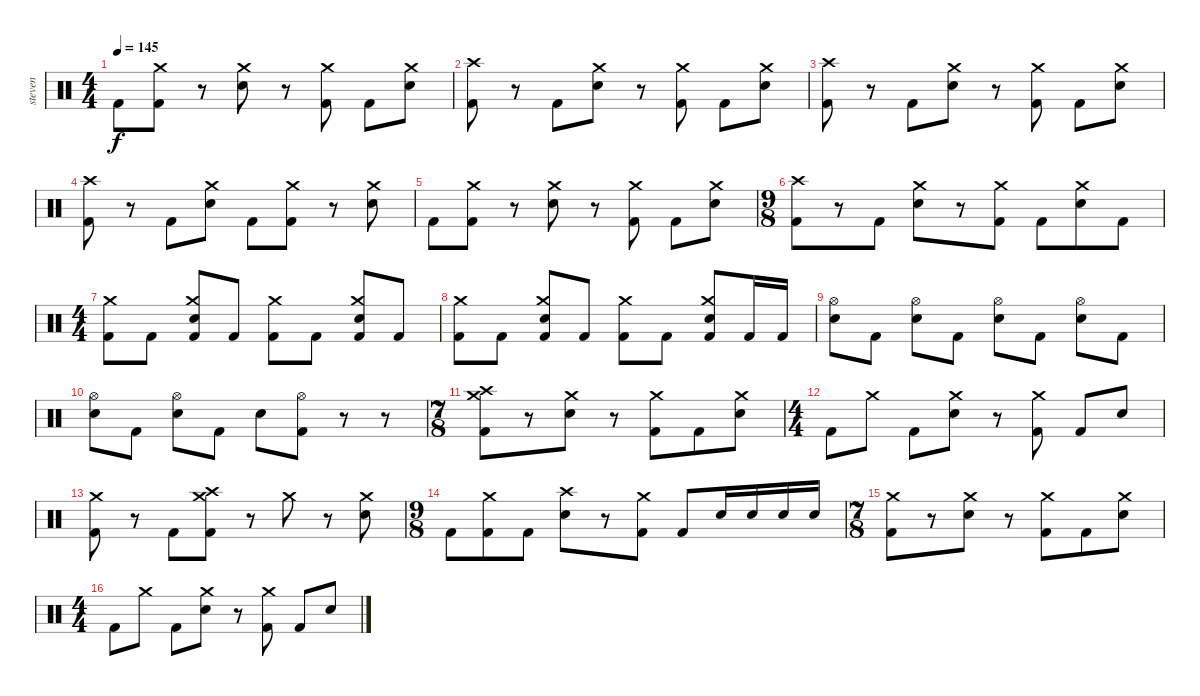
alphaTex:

\track ("steven" "steven") {instrument percussion}
\staff {score}
\articulation defaults
\ts (4 4)
\tempo 145
\clef neutral
\ks c "Kick (hit) 2".8{dy f}
("Crash medium (hit)" "Kick (hit) 2").8 r.8 ("Crash medium (hit)" "Electric Snare (hit)").8 r.8 ("Crash medium (hit)" "Kick (hit) 2").8 "Kick (hit) 2".8 ("Crash medium (hit)" "Electric Snare (hit)").8 |
("Crash high (hit)" "Kick (hit) 2").8 r.8 "Kick (hit) 2".8 ("Crash medium (hit)" "Electric Snare (hit)").8 r.8 ("Crash medium (hit)" "Kick (hit) 2").8 "Kick (hit) 2".8 ("Crash medium (hit)" "Electric Snare (hit)").8 |
("Crash high (hit)" "Kick (hit) 2").8 r.8 "Kick (hit) 2".8 ("Crash medium (hit)" "Electric Snare (hit)").8 r.8 ("Crash medium (hit)" "Kick (hit) 2").8 "Kick (hit) 2".8 ("Crash medium (hit)" "Electric Snare (hit)").8 |
("Crash high (hit)" "Kick (hit) 2").8 r.8 "Kick (hit) 2".8 ("Crash medium (hit)" "Electric Snare (hit)").8 "Kick (hit) 2".8 ("Crash medium (hit)" "Kick (hit) 2").8 r.8 ("Crash medium (hit)" "Electric Snare (hit)").8 |
"Kick (hit) 2".8 ("Crash medium (hit)" "Kick (hit) 2").8 r.8 ("Crash medium (hit)" "Electric Snare (hit)").8 r.8 ("Crash medium (hit)" "Kick (hit) 2").8 "Kick (hit) 2".8 ("Crash medium (hit)" "Electric Snare (hit)").8 |
\ts (9 8)
("Crash high (hit)" "Kick (hit) 2").8 r.8 "Kick (hit) 2".8 ("Crash medium (hit)" "Electric Snare (hit)").8 r.8 ("Crash medium (hit)" "Kick (hit) 2").8 "Kick (hit) 2".8 ("Crash medium (hit)" "Electric Snare (hit)").8 "Kick (hit) 2".8 |
\ts (4 4)
("Crash medium (hit)" "Kick (hit) 2").8 "Kick (hit) 2".8 ("Crash medium (hit)" "Electric Snare (hit)" "Kick (hit) 2").8 "Kick (hit) 2".8 ("Crash medium (hit)" "Kick (hit) 2").8 "Kick (hit) 2".8 ("Crash medium (hit)" "Electric Snare (hit)" "Kick (hit) 2").8 "Kick (hit) 2".8 |
("Crash medium (hit)" "Kick (hit) 2").8 "Kick (hit) 2".8 ("Crash medium (hit)" "Electric Snare (hit)" "Kick (hit) 2").8 "Kick (hit) 2".8 ("Crash medium (hit)" "Kick (hit) 2").8 "Kick (hit) 2".8 ("Crash medium (hit)" "Electric Snare (hit)" "Kick (hit) 2").8 "Kick (hit) 2".16 "Kick (hit) 2".16 |
("Hi-Hat (open)" "Electric Snare (hit)").8 "Kick (hit) 2".8 ("Hi-Hat (open)" "Electric Snare (hit)").8 "Kick (hit) 2".8 ("Hi-Hat (open)" "Electric Snare (hit)").8 "Kick (hit) 2".8 ("Hi-Hat (open)" "Electric Snare (hit)").8 "Kick (hit) 2".8 |
("Hi-Hat (open)" "Electric Snare (hit)").8 "Kick (hit) 2".8 ("Hi-Hat (open)" "Electric Snare (hit)").8 "Kick (hit) 2".8 "Electric Snare (hit)".8 ("Hi-Hat (open)" "Kick (hit) 2").8 r.8 r.8 |
\ts (7 8)
("Crash medium (hit)" "Crash high (hit)" "Kick (hit) 2").8 r.8 ("Crash medium (hit)" "Electric Snare (hit)").8 r.8 ("Crash medium (hit)" "Kick (hit) 2").8 "Kick (hit) 2".8 ("Crash medium (hit)" "Electric Snare (hit)").8 |
\ts (4 4)
"Kick (hit) 2".8 "Crash medium (hit)".8 "Kick (hit) 2".8 ("Crash medium (hit)" "Electric Snare (hit)").8 r.8 ("Crash medium (hit)" "Kick (hit) 2").8 "Kick (hit) 2".8 "Electric Snare (hit)".8 |
("Crash medium (hit)" "Kick (hit) 2").8 r.8 "Kick (hit) 2".8 ("Crash medium (hit)" "Crash high (hit)" "Kick (hit) 2").8 r.8 "Crash medium (hit)".8 r.8 ("Crash medium (hit)" "Electric Snare (hit)").8 |
\ts (9 8)
"Kick (hit) 2".8 ("Crash medium (hit)" "Kick (hit) 2").8 "Kick (hit) 2".8 ("Crash high (hit)" "Electric Snare (hit)").8 r.8 ("Crash medium (hit)" "Kick (hit) 2").8 "Kick (hit) 2".8 "Electric Snare (hit)".16 "Electric Snare (hit)".16 "Electric Snare (hit)".16 "Electric Snare (hit)".16 |
\ts (7 8)
("Crash medium (hit)" "Kick (hit) 2").8 r.8 ("Crash medium (hit)" "Electric Snare (hit)").8 r.8 ("Crash medium (hit)" "Kick (hit) 2").8 "Kick (hit) 2".8 ("Crash medium (hit)" "Electric Snare (hit)").8 |
\ts (4 4)
"Kick (hit) 2".8 "Crash medium (hit)".8 "Kick (hit) 2".8 ("Crash medium (hit)" "Electric Snare (hit)").8 r.8 ("Crash medium (hit)" "Kick (hit) 2").8 "Kick (hit) 2".8 "Electric Snare (hit)".8
